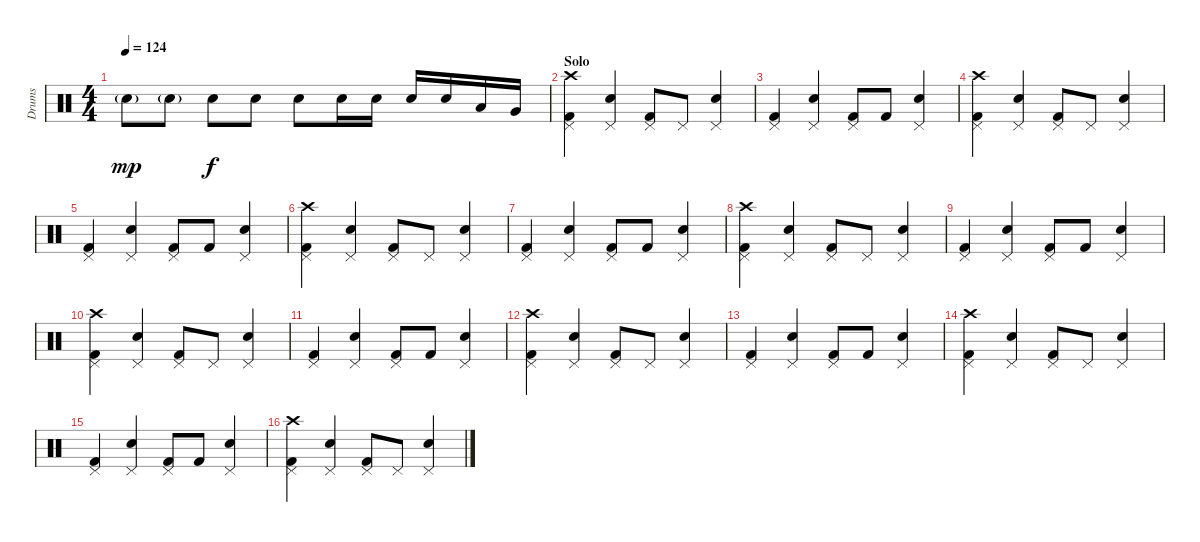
\track ("Drums" "Drums") {instrument percussion}
\staff {score}
\articulation defaults
\ts (4 4)
\tempo 124
\clef neutral
\ks c "Snare (hit) 2"{g}.8{dy mp} "Snare (hit) 2"{g}.8 "Snare (hit) 2".8{dy f} "Snare (hit) 2".8 "Snare (hit) 2".8 "Snare (hit) 2".16 "Snare (hit) 2".16 "Snare (hit) 2".16 "Snare (hit) 2".16 "Low Tom (hit)".16 "Very Low Tom (hit)".16
|
\section ("" "Solo")
("Kick (hit) 2" "Pedal Hi-Hat (hit)" "Crash high (hit)").4 ("Snare (hit) 2" "Pedal Hi-Hat (hit)").4 ("Kick (hit) 2" "Pedal Hi-Hat (hit)").8 "Pedal Hi-Hat (hit)".8 ("Snare (hit) 2" "Pedal Hi-Hat (hit)").4 |
("Kick (hit) 2" "Pedal Hi-Hat (hit)").4 ("Snare (hit) 2" "Pedal Hi-Hat (hit)").4 ("Kick (hit) 2" "Pedal Hi-Hat (hit)").8 "Kick (hit) 2".8 ("Snare (hit) 2" "Pedal Hi-Hat (hit)").4 |
("Kick (hit) 2" "Pedal Hi-Hat (hit)" "Crash high (hit)").4 ("Snare (hit) 2" "Pedal Hi-Hat (hit)").4 ("Kick (hit) 2" "Pedal Hi-Hat (hit)").8 "Pedal Hi-Hat (hit)".8 ("Snare (hit) 2" "Pedal Hi-Hat (hit)").4 |
("Kick (hit) 2" "Pedal Hi-Hat (hit)").4 ("Snare (hit) 2" "Pedal Hi-Hat (hit)").4 ("Kick (hit) 2" "Pedal Hi-Hat (hit)").8 "Kick (hit) 2".8 ("Snare (hit) 2" "Pedal Hi-Hat (hit)").4 |
("Kick (hit) 2" "Pedal Hi-Hat (hit)" "Crash high (hit)").4 ("Snare (hit) 2" "Pedal Hi-Hat (hit)").4 ("Kick (hit) 2" "Pedal Hi-Hat (hit)").8 "Pedal Hi-Hat (hit)".8 ("Snare (hit) 2" "Pedal Hi-Hat (hit)").4 |
("Kick (hit) 2" "Pedal Hi-Hat (hit)").4 ("Snare (hit) 2" "Pedal Hi-Hat (hit)").4 ("Kick (hit) 2" "Pedal Hi-Hat (hit)").8 "Kick (hit) 2".8 ("Snare (hit) 2" "Pedal Hi-Hat (hit)").4 |
("Kick (hit) 2" "Pedal Hi-Hat (hit)" "Crash high (hit)").4 ("Snare (hit) 2" "Pedal Hi-Hat (hit)").4 ("Kick (hit) 2" "Pedal Hi-Hat (hit)").8 "Pedal Hi-Hat (hit)".8 ("Snare (hit) 2" "Pedal Hi-Hat (hit)").4 |
("Kick (hit) 2" "Pedal Hi-Hat (hit)").4 ("Snare (hit) 2" "Pedal Hi-Hat (hit)").4 ("Kick (hit) 2" "Pedal Hi-Hat (hit)").8 "Kick (hit) 2".8 ("Snare (hit) 2" "Pedal Hi-Hat (hit)").4 |
("Kick (hit) 2" "Pedal Hi-Hat (hit)" "Crash high (hit)").4 ("Snare (hit) 2" "Pedal Hi-Hat (hit)").4 ("Kick (hit) 2" "Pedal Hi-Hat (hit)").8 "Pedal Hi-Hat (hit)".8 ("Snare (hit) 2" "Pedal Hi-Hat (hit)").4 |
("Kick (hit) 2" "Pedal Hi-Hat (hit)").4 ("Snare (hit) 2" "Pedal Hi-Hat (hit)").4 ("Kick (hit) 2" "Pedal Hi-Hat (hit)").8 "Kick (hit) 2".8 ("Snare (hit) 2" "Pedal Hi-Hat (hit)").4 |
("Kick (hit) 2" "Pedal Hi-Hat (hit)" "Crash high (hit)").4 ("Snare (hit) 2" "Pedal Hi-Hat (hit)").4 ("Kick (hit) 2" "Pedal Hi-Hat (hit)").8 "Pedal Hi-Hat (hit)".8 ("Snare (hit) 2" "Pedal Hi-Hat (hit)").4 |
("Kick (hit) 2" "Pedal Hi-Hat (hit)").4 ("Snare (hit) 2" "Pedal Hi-Hat (hit)").4 ("Kick (hit) 2" "Pedal Hi-Hat (hit)").8 "Kick (hit) 2".8 ("Snare (hit) 2" "Pedal Hi-Hat (hit)").4 |
("Kick (hit) 2" "Pedal Hi-Hat (hit)" "Crash high (hit)").4 ("Snare (hit) 2" "Pedal Hi-Hat (hit)").4 ("Kick (hit) 2" "Pedal Hi-Hat (hit)").8 "Pedal Hi-Hat (hit)".8 ("Snare (hit) 2" "Pedal Hi-Hat (hit)").4 |
("Kick (hit) 2" "Pedal Hi-Hat (hit)").4 ("Snare (hit) 2" "Pedal Hi-Hat (hit)").4 ("Kick (hit) 2" "Pedal Hi-Hat (hit)").8 "Kick (hit) 2".8 ("Snare (hit) 2" "Pedal Hi-Hat (hit)").4 |
("Kick (hit) 2" "Pedal Hi-Hat (hit)" "Crash high (hit)").4 ("Snare (hit) 2" "Pedal Hi-Hat (hit)").4 ("Kick (hit) 2" "Pedal Hi-Hat (hit)").8 "Pedal Hi-Hat (hit)".8 ("Snare (hit) 2" "Pedal Hi-Hat (hit)").4
